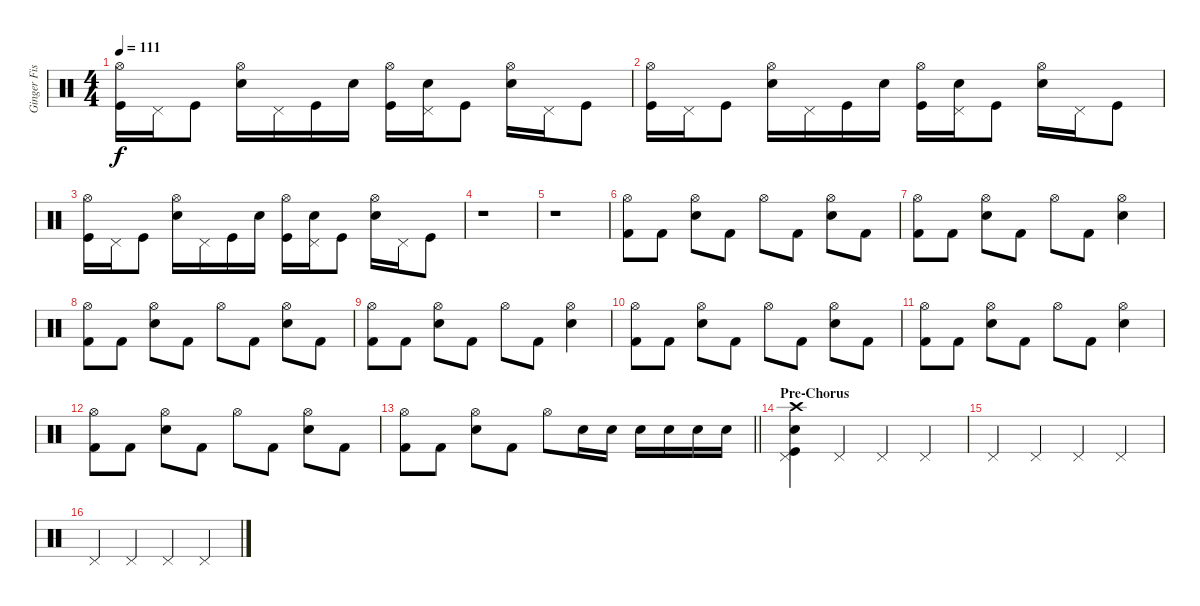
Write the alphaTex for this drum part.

\track ("Ginger Fish" "Ginger Fis") {instrument percussion}
\staff {score}
\articulation defaults
\ts (4 4)
\tempo 111
\clef neutral
\ks c
("Hi-Hat (open)" "Kick (hit)").16{dy f} "Pedal Hi-Hat (hit)".16 "Kick (hit)".8 ("Hi-Hat (open)" "Electric Snare (hit)").16 "Pedal Hi-Hat (hit)".16 "Kick (hit)".16 "Electric Snare (hit)".16 ("Hi-Hat (open)" "Kick (hit)").16 ("Pedal Hi-Hat (hit)" "Electric Snare (hit)").16 "Kick (hit)".8 ("Hi-Hat (open)" "Electric Snare (hit)").16 "Pedal Hi-Hat (hit)".16 "Kick (hit)".8 |
("Hi-Hat (open)" "Kick (hit)").16 "Pedal Hi-Hat (hit)".16 "Kick (hit)".8 ("Hi-Hat (open)" "Electric Snare (hit)").16 "Pedal Hi-Hat (hit)".16 "Kick (hit)".16 "Electric Snare (hit)".16 ("Hi-Hat (open)" "Kick (hit)").16 ("Pedal Hi-Hat (hit)" "Electric Snare (hit)").16 "Kick (hit)".8 ("Hi-Hat (open)" "Electric Snare (hit)").16 "Pedal Hi-Hat (hit)".16 "Kick (hit)".8 |
("Hi-Hat (open)" "Kick (hit)").16 "Pedal Hi-Hat (hit)".16 "Kick (hit)".8 ("Hi-Hat (open)" "Electric Snare (hit)").16 "Pedal Hi-Hat (hit)".16 "Kick (hit)".16 "Electric Snare (hit)".16 ("Hi-Hat (open)" "Kick (hit)").16 ("Pedal Hi-Hat (hit)" "Electric Snare (hit)").16 "Kick (hit)".8 ("Hi-Hat (open)" "Electric Snare (hit)").16 "Pedal Hi-Hat (hit)".16 "Kick (hit)".8 |
r.1 |
r.1 |
("Hi-Hat (open)" "Kick (hit) 2").8 "Kick (hit) 2".8 ("Hi-Hat (open)" "Snare (hit) 2").8 "Kick (hit) 2".8 "Hi-Hat (open)".8 "Kick (hit) 2".8 ("Hi-Hat (open)" "Snare (hit) 2").8 "Kick (hit) 2".8 |
("Hi-Hat (open)" "Kick (hit) 2").8 "Kick (hit) 2".8 ("Hi-Hat (open)" "Snare (hit) 2").8 "Kick (hit) 2".8 "Hi-Hat (open)".8 "Kick (hit) 2".8 ("Hi-Hat (open)" "Snare (hit) 2").4 |
("Hi-Hat (open)" "Kick (hit) 2").8 "Kick (hit) 2".8 ("Hi-Hat (open)" "Snare (hit) 2").8 "Kick (hit) 2".8 "Hi-Hat (open)".8 "Kick (hit) 2".8 ("Hi-Hat (open)" "Snare (hit) 2").8 "Kick (hit) 2".8 |
("Hi-Hat (open)" "Kick (hit) 2").8 "Kick (hit) 2".8 ("Hi-Hat (open)" "Snare (hit) 2").8 "Kick (hit) 2".8 "Hi-Hat (open)".8 "Kick (hit) 2".8 ("Hi-Hat (open)" "Snare (hit) 2").4 |
("Hi-Hat (open)" "Kick (hit) 2").8 "Kick (hit) 2".8 ("Hi-Hat (open)" "Snare (hit) 2").8 "Kick (hit) 2".8 "Hi-Hat (open)".8 "Kick (hit) 2".8 ("Hi-Hat (open)" "Snare (hit) 2").8 "Kick (hit) 2".8 |
("Hi-Hat (open)" "Kick (hit) 2").8 "Kick (hit) 2".8 ("Hi-Hat (open)" "Snare (hit) 2").8 "Kick (hit) 2".8 "Hi-Hat (open)".8 "Kick (hit) 2".8 ("Hi-Hat (open)" "Snare (hit) 2").4 |
("Hi-Hat (open)" "Kick (hit) 2").8 "Kick (hit) 2".8 ("Hi-Hat (open)" "Snare (hit) 2").8 "Kick (hit) 2".8 "Hi-Hat (open)".8 "Kick (hit) 2".8 ("Hi-Hat (open)" "Snare (hit) 2").8 "Kick (hit) 2".8 |
\barLineRight lightlight
("Hi-Hat (open)" "Kick (hit) 2").8 "Kick (hit) 2".8 ("Hi-Hat (open)" "Snare (hit) 2").8 "Kick (hit) 2".8 "Hi-Hat (open)".8 "Snare (hit) 2".16 "Snare (hit) 2".16 "Snare (hit) 2".16 "Snare (hit) 2".16 "Snare (hit) 2".16 "Snare (hit) 2".16 |
\section ("" "Pre-Chorus")
("Crash high (hit)" "Pedal Hi-Hat (hit)" "Snare (hit) 2" "Kick (hit)").4 "Pedal Hi-Hat (hit)".4 "Pedal Hi-Hat (hit)".4 "Pedal Hi-Hat (hit)".4 |
"Pedal Hi-Hat (hit)".4 "Pedal Hi-Hat (hit)".4 "Pedal Hi-Hat (hit)".4 "Pedal Hi-Hat (hit)".4 |
"Pedal Hi-Hat (hit)".4 "Pedal Hi-Hat (hit)".4 "Pedal Hi-Hat (hit)".4 "Pedal Hi-Hat (hit)".4
